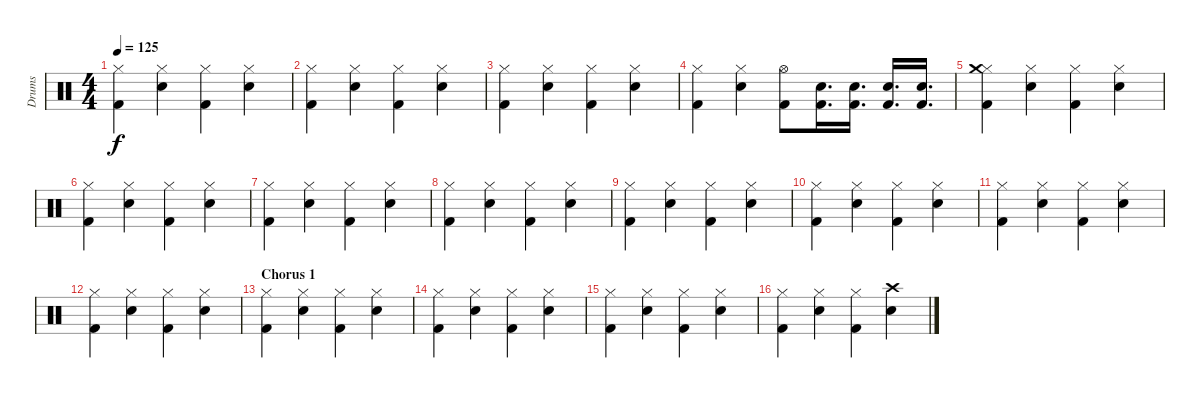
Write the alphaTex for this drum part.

\track ("Drums" "Drums") {instrument percussion}
\staff {score}
\articulation defaults
\ts (4 4)
\tempo 125
\clef neutral
\ks c
("Hi-Hat (closed)" "Kick (hit) 2").4{dy f} ("Hi-Hat (closed)" "Electric Snare (hit)").4 ("Hi-Hat (closed)" "Kick (hit) 2").4 ("Hi-Hat (closed)" "Electric Snare (hit)").4 |
("Hi-Hat (closed)" "Kick (hit) 2").4 ("Hi-Hat (closed)" "Electric Snare (hit)").4 ("Hi-Hat (closed)" "Kick (hit) 2").4 ("Hi-Hat (closed)" "Electric Snare (hit)").4 |
("Hi-Hat (closed)" "Kick (hit) 2").4 ("Hi-Hat (closed)" "Electric Snare (hit)").4 ("Hi-Hat (closed)" "Kick (hit) 2").4 ("Hi-Hat (closed)" "Electric Snare (hit)").4 |
("Hi-Hat (closed)" "Kick (hit) 2").4 ("Hi-Hat (closed)" "Electric Snare (hit)").4 ("Hi-Hat (open)" "Kick (hit) 2").8 ("Electric Snare (hit)" "Kick (hit) 2").16{d} ("Electric Snare (hit)" "Kick (hit) 2").16{d} ("Electric Snare (hit)" "Kick (hit) 2").16{d} ("Electric Snare (hit)" "Kick (hit) 2").16{d} |
("Hi-Hat (closed)" "Crash medium (hit)" "Kick (hit) 2").4 ("Hi-Hat (closed)" "Electric Snare (hit)").4 ("Hi-Hat (closed)" "Kick (hit) 2").4 ("Hi-Hat (closed)" "Electric Snare (hit)").4 |
("Hi-Hat (closed)" "Kick (hit) 2").4 ("Hi-Hat (closed)" "Electric Snare (hit)").4 ("Hi-Hat (closed)" "Kick (hit) 2").4 ("Hi-Hat (closed)" "Electric Snare (hit)").4 |
("Hi-Hat (closed)" "Kick (hit) 2").4 ("Hi-Hat (closed)" "Electric Snare (hit)").4 ("Hi-Hat (closed)" "Kick (hit) 2").4 ("Hi-Hat (closed)" "Electric Snare (hit)").4 |
("Hi-Hat (closed)" "Kick (hit) 2").4 ("Hi-Hat (closed)" "Electric Snare (hit)").4 ("Hi-Hat (closed)" "Kick (hit) 2").4 ("Hi-Hat (closed)" "Electric Snare (hit)").4 |
("Hi-Hat (closed)" "Kick (hit) 2").4 ("Hi-Hat (closed)" "Electric Snare (hit)").4 ("Hi-Hat (closed)" "Kick (hit) 2").4 ("Hi-Hat (closed)" "Electric Snare (hit)").4 |
("Hi-Hat (closed)" "Kick (hit) 2").4 ("Hi-Hat (closed)" "Electric Snare (hit)").4 ("Hi-Hat (closed)" "Kick (hit) 2").4 ("Hi-Hat (closed)" "Electric Snare (hit)").4 |
("Hi-Hat (closed)" "Kick (hit) 2").4 ("Hi-Hat (closed)" "Electric Snare (hit)").4 ("Hi-Hat (closed)" "Kick (hit) 2").4 ("Hi-Hat (closed)" "Electric Snare (hit)").4 |
("Hi-Hat (closed)" "Kick (hit) 2").4 ("Hi-Hat (closed)" "Electric Snare (hit)").4 ("Hi-Hat (closed)" "Kick (hit) 2").4 ("Hi-Hat (closed)" "Electric Snare (hit)").4 |
\section ("" "Chorus 1")
("Hi-Hat (closed)" "Kick (hit) 2").4 ("Hi-Hat (closed)" "Electric Snare (hit)").4 ("Hi-Hat (closed)" "Kick (hit) 2").4 ("Hi-Hat (closed)" "Electric Snare (hit)").4 |
("Hi-Hat (closed)" "Kick (hit) 2").4 ("Hi-Hat (closed)" "Electric Snare (hit)").4 ("Hi-Hat (closed)" "Kick (hit) 2").4 ("Hi-Hat (closed)" "Electric Snare (hit)").4 |
("Hi-Hat (closed)" "Kick (hit) 2").4 ("Hi-Hat (closed)" "Electric Snare (hit)").4 ("Hi-Hat (closed)" "Kick (hit) 2").4 ("Hi-Hat (closed)" "Electric Snare (hit)").4 |
("Hi-Hat (closed)" "Kick (hit) 2").4 ("Hi-Hat (closed)" "Electric Snare (hit)").4 ("Hi-Hat (closed)" "Kick (hit) 2").4 ("Crash high (hit)" "Electric Snare (hit)").4
